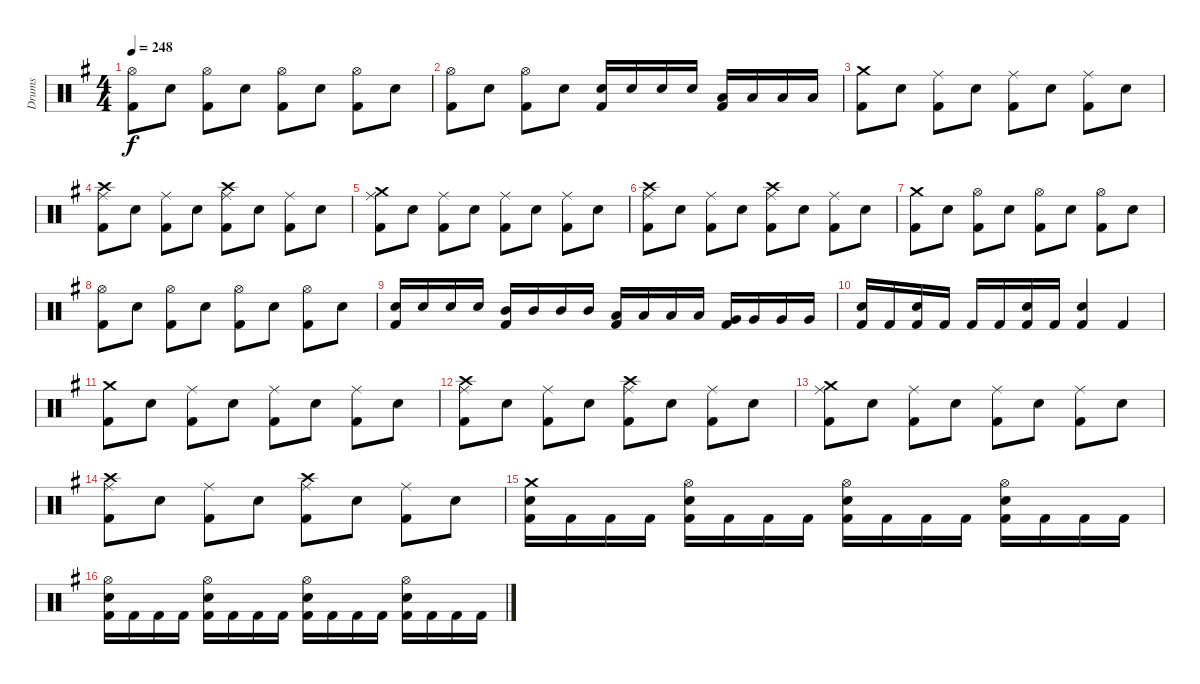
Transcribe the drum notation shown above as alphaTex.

\track ("Drums" "Drums") {instrument percussion}
\staff {score}
\articulation defaults
\ts (4 4)
\tempo 248
\clef neutral
\ks g
("Hi-Hat (open)" "Kick (hit) 2").8{dy f} "Snare (hit) 2".8 ("Hi-Hat (open)" "Kick (hit) 2").8 "Snare (hit) 2".8 ("Hi-Hat (open)" "Kick (hit) 2").8 "Snare (hit) 2".8 ("Hi-Hat (open)" "Kick (hit) 2").8 "Snare (hit) 2".8 |
("Hi-Hat (open)" "Kick (hit) 2").8 "Snare (hit) 2".8 ("Hi-Hat (open)" "Kick (hit) 2").8 "Snare (hit) 2".8 ("Snare (hit) 2" "Kick (hit) 2").16 "Snare (hit) 2".16 "Snare (hit) 2".16 "Snare (hit) 2".16 ("Low Tom (hit)" "Kick (hit) 2").16 "Low Tom (hit)".16 "Low Tom (hit)".16 "Low Tom (hit)".16 |
("Crash medium (hit)" "Kick (hit) 2").8 "Snare (hit) 2".8 ("Ride (middle)" "Kick (hit) 2").8 "Snare (hit) 2".8 ("Ride (middle)" "Kick (hit) 2").8 "Snare (hit) 2".8 ("Ride (middle)" "Kick (hit) 2").8 "Snare (hit) 2".8 |
("Crash high (hit)" "Ride (middle)" "Kick (hit) 2").8 "Snare (hit) 2".8 ("Ride (middle)" "Kick (hit) 2").8 "Snare (hit) 2".8 ("Crash high (hit)" "Ride (middle)" "Kick (hit) 2").8 "Snare (hit) 2".8 ("Ride (middle)" "Kick (hit) 2").8 "Snare (hit) 2".8 |
("Crash medium (hit)" "Ride (middle)" "Kick (hit) 2").8 "Snare (hit) 2".8 ("Ride (middle)" "Kick (hit) 2").8 "Snare (hit) 2".8 ("Ride (middle)" "Kick (hit) 2").8 "Snare (hit) 2".8 ("Ride (middle)" "Kick (hit) 2").8 "Snare (hit) 2".8 |
("Crash high (hit)" "Ride (middle)" "Kick (hit) 2").8 "Snare (hit) 2".8 ("Ride (middle)" "Kick (hit) 2").8 "Snare (hit) 2".8 ("Crash high (hit)" "Ride (middle)" "Kick (hit) 2").8 "Snare (hit) 2".8 ("Ride (middle)" "Kick (hit) 2").8 "Snare (hit) 2".8 |
("Crash medium (hit)" "Kick (hit) 2").8 "Snare (hit) 2".8 ("Hi-Hat (open)" "Kick (hit) 2").8 "Snare (hit) 2".8 ("Hi-Hat (open)" "Kick (hit) 2").8 "Snare (hit) 2".8 ("Hi-Hat (open)" "Kick (hit) 2").8 "Snare (hit) 2".8 |
("Hi-Hat (open)" "Kick (hit) 2").8 "Snare (hit) 2".8 ("Hi-Hat (open)" "Kick (hit) 2").8 "Snare (hit) 2".8 ("Hi-Hat (open)" "Kick (hit) 2").8 "Snare (hit) 2".8 ("Hi-Hat (open)" "Kick (hit) 2").8 "Snare (hit) 2".8 |
("Snare (hit) 2" "Kick (hit) 2").16 "Snare (hit) 2".16 "Snare (hit) 2".16 "Snare (hit) 2".16 ("Mid Tom (hit)" "Kick (hit) 2").16 "Mid Tom (hit)".16 "Mid Tom (hit)".16 "Mid Tom (hit)".16 ("Low Tom (hit)" "Kick (hit) 2").16 "Low Tom (hit)".16 "Low Tom (hit)".16 "Low Tom (hit)".16 ("Very Low Tom (hit)" "Kick (hit) 2").16 "Very Low Tom (hit)".16 "Very Low Tom (hit)".16 "Very Low Tom (hit)".16 |
("Snare (hit) 2" "Kick (hit) 2").16 "Kick (hit) 2".16 ("Snare (hit) 2" "Kick (hit) 2").16 "Kick (hit) 2".16 "Kick (hit) 2".16 "Kick (hit) 2".16 ("Snare (hit) 2" "Kick (hit) 2").16 "Kick (hit) 2".16 ("Snare (hit) 2" "Kick (hit) 2").4 "Kick (hit) 2".4 |
("Crash medium (hit)" "Kick (hit) 2").8 "Snare (hit) 2".8 ("Ride (middle)" "Kick (hit) 2").8 "Snare (hit) 2".8 ("Ride (middle)" "Kick (hit) 2").8 "Snare (hit) 2".8 ("Ride (middle)" "Kick (hit) 2").8 "Snare (hit) 2".8 |
("Crash high (hit)" "Ride (middle)" "Kick (hit) 2").8 "Snare (hit) 2".8 ("Ride (middle)" "Kick (hit) 2").8 "Snare (hit) 2".8 ("Crash high (hit)" "Ride (middle)" "Kick (hit) 2").8 "Snare (hit) 2".8 ("Ride (middle)" "Kick (hit) 2").8 "Snare (hit) 2".8 |
("Crash medium (hit)" "Ride (middle)" "Kick (hit) 2").8 "Snare (hit) 2".8 ("Ride (middle)" "Kick (hit) 2").8 "Snare (hit) 2".8 ("Ride (middle)" "Kick (hit) 2").8 "Snare (hit) 2".8 ("Ride (middle)" "Kick (hit) 2").8 "Snare (hit) 2".8 |
("Crash high (hit)" "Ride (middle)" "Kick (hit) 2").8 "Snare (hit) 2".8 ("Ride (middle)" "Kick (hit) 2").8 "Snare (hit) 2".8 ("Crash high (hit)" "Ride (middle)" "Kick (hit) 2").8 "Snare (hit) 2".8 ("Ride (middle)" "Kick (hit) 2").8 "Snare (hit) 2".8 |
("Crash medium (hit)" "Snare (hit) 2" "Kick (hit) 2").16 "Kick (hit) 2".16 "Kick (hit) 2".16 "Kick (hit) 2".16 ("Hi-Hat (open)" "Snare (hit) 2" "Kick (hit) 2").16 "Kick (hit) 2".16 "Kick (hit) 2".16 "Kick (hit) 2".16 ("Hi-Hat (open)" "Snare (hit) 2" "Kick (hit) 2").16 "Kick (hit) 2".16 "Kick (hit) 2".16 "Kick (hit) 2".16 ("Hi-Hat (open)" "Snare (hit) 2" "Kick (hit) 2").16 "Kick (hit) 2".16 "Kick (hit) 2".16 "Kick (hit) 2".16 |
("Hi-Hat (open)" "Snare (hit) 2" "Kick (hit) 2").16 "Kick (hit) 2".16 "Kick (hit) 2".16 "Kick (hit) 2".16 ("Hi-Hat (open)" "Snare (hit) 2" "Kick (hit) 2").16 "Kick (hit) 2".16 "Kick (hit) 2".16 "Kick (hit) 2".16 ("Hi-Hat (open)" "Snare (hit) 2" "Kick (hit) 2").16 "Kick (hit) 2".16 "Kick (hit) 2".16 "Kick (hit) 2".16 ("Hi-Hat (open)" "Snare (hit) 2" "Kick (hit) 2").16 "Kick (hit) 2".16 "Kick (hit) 2".16 "Kick (hit) 2".16
